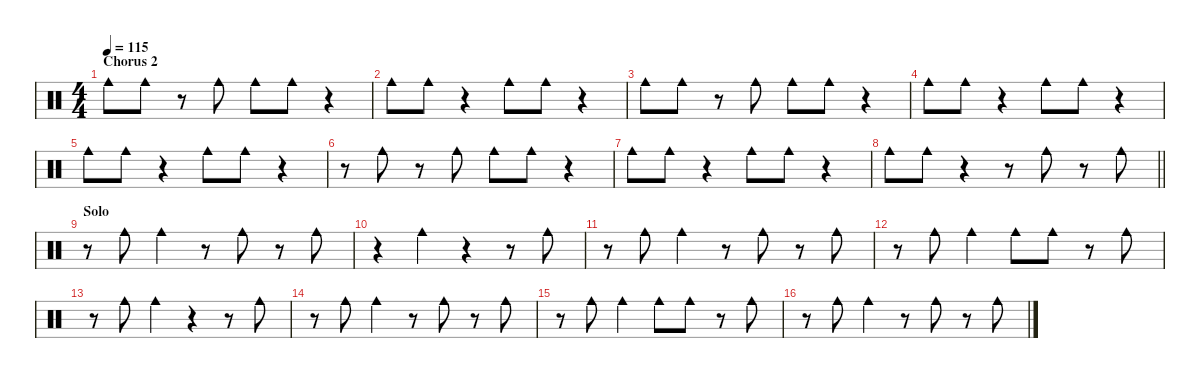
\defaultSystemsLayout 4
\hideDynamics
\bracketExtendMode nobrackets
\singleTrackTrackNamePolicy hidden
\multiTrackTrackNamePolicy hidden
\otherSystemsTrackNameOrientation horizontal
\track ("Cowbell" "drm.") {defaultSystemsLayout 8 instrument percussion}
\staff {score}
\articulation defaults
\ts (4 4)
\section ("" "Chorus 2")
\tempo 115
\clef neutral
\ks c "Cowbell medium (hit)".8{dy f} "Cowbell medium (hit)".8
r.8 "Cowbell medium (hit)".8 "Cowbell medium (hit)".8 "Cowbell medium (hit)".8 r.4 |
"Cowbell medium (hit)".8 "Cowbell medium (hit)".8 r.4 "Cowbell medium (hit)".8 "Cowbell medium (hit)".8 r.4 |
"Cowbell medium (hit)".8 "Cowbell medium (hit)".8 r.8 "Cowbell medium (hit)".8 "Cowbell medium (hit)".8 "Cowbell medium (hit)".8 r.4 |
"Cowbell medium (hit)".8 "Cowbell medium (hit)".8 r.4 "Cowbell medium (hit)".8 "Cowbell medium (hit)".8 r.4 |
"Cowbell medium (hit)".8 "Cowbell medium (hit)".8 r.4 "Cowbell medium (hit)".8 "Cowbell medium (hit)".8 r.4 |
r.8 "Cowbell medium (hit)".8 r.8 "Cowbell medium (hit)".8 "Cowbell medium (hit)".8 "Cowbell medium (hit)".8 r.4 |
"Cowbell medium (hit)".8 "Cowbell medium (hit)".8 r.4 "Cowbell medium (hit)".8 "Cowbell medium (hit)".8 r.4 |
\barLineRight lightlight "Cowbell medium (hit)".8 "Cowbell medium (hit)".8
r.4 r.8 "Cowbell medium (hit)".8 r.8 "Cowbell medium (hit)".8 |
\section ("" "Solo")
r.8 "Cowbell medium (hit)".8 "Cowbell medium (hit)".4 r.8 "Cowbell medium (hit)".8 r.8 "Cowbell medium (hit)".8 |
r.4 "Cowbell medium (hit)".4 r.4 r.8 "Cowbell medium (hit)".8 |
r.8 "Cowbell medium (hit)".8 "Cowbell medium (hit)".4 r.8 "Cowbell medium (hit)".8 r.8 "Cowbell medium (hit)".8 |
r.8 "Cowbell medium (hit)".8 "Cowbell medium (hit)".4 "Cowbell medium (hit)".8 "Cowbell medium (hit)".8 r.8 "Cowbell medium (hit)".8 |
r.8 "Cowbell medium (hit)".8 "Cowbell medium (hit)".4 r.4 r.8 "Cowbell medium (hit)".8 |
r.8 "Cowbell medium (hit)".8 "Cowbell medium (hit)".4 r.8 "Cowbell medium (hit)".8 r.8 "Cowbell medium (hit)".8 |
r.8 "Cowbell medium (hit)".8 "Cowbell medium (hit)".4 "Cowbell medium (hit)".8 "Cowbell medium (hit)".8 r.8 "Cowbell medium (hit)".8 |
r.8 "Cowbell medium (hit)".8 "Cowbell medium (hit)".4 r.8 "Cowbell medium (hit)".8 r.8 "Cowbell medium (hit)".8
